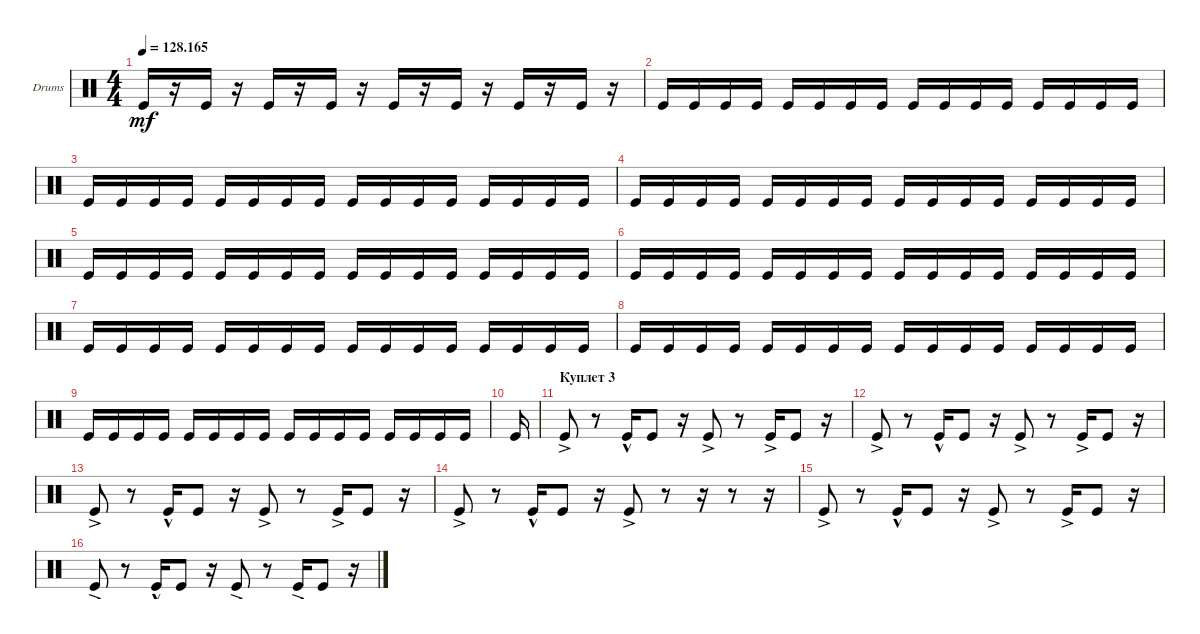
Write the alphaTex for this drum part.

\defaultSystemsLayout 4
\bracketExtendMode groupsimilarinstruments
\firstSystemTrackNameOrientation horizontal
\otherSystemsTrackNameOrientation horizontal
\track ("Drumkit" "Drums") {instrument percussion}
\staff {score}
\articulation defaults
\ts (4 4)
\tempo
128.165
\accidentals auto
\clef neutral
\ottava regular
\simile none
\ks c "Kick (hit)".16{dy mf}
r.16 "Kick (hit)".16 r.16 "Kick (hit)".16 r.16 "Kick (hit)".16 r.16 "Kick (hit)".16 r.16 "Kick (hit)".16 r.16 "Kick (hit)".16 r.16 "Kick (hit)".16 r.16 |
"Kick (hit)".16 "Kick (hit)".16 "Kick (hit)".16 "Kick (hit)".16 "Kick (hit)".16 "Kick (hit)".16 "Kick (hit)".16 "Kick (hit)".16 "Kick (hit)".16 "Kick (hit)".16 "Kick (hit)".16 "Kick (hit)".16 "Kick (hit)".16 "Kick (hit)".16 "Kick (hit)".16 "Kick (hit)".16 |
"Kick (hit)".16 "Kick (hit)".16 "Kick (hit)".16 "Kick (hit)".16 "Kick (hit)".16 "Kick (hit)".16 "Kick (hit)".16 "Kick (hit)".16 "Kick (hit)".16 "Kick (hit)".16 "Kick (hit)".16 "Kick (hit)".16 "Kick (hit)".16 "Kick (hit)".16 "Kick (hit)".16 "Kick (hit)".16 |
"Kick (hit)".16 "Kick (hit)".16 "Kick (hit)".16 "Kick (hit)".16 "Kick (hit)".16 "Kick (hit)".16 "Kick (hit)".16 "Kick (hit)".16 "Kick (hit)".16 "Kick (hit)".16 "Kick (hit)".16 "Kick (hit)".16 "Kick (hit)".16 "Kick (hit)".16 "Kick (hit)".16 "Kick (hit)".16 |
"Kick (hit)".16 "Kick (hit)".16 "Kick (hit)".16 "Kick (hit)".16 "Kick (hit)".16 "Kick (hit)".16 "Kick (hit)".16 "Kick (hit)".16 "Kick (hit)".16 "Kick (hit)".16 "Kick (hit)".16 "Kick (hit)".16 "Kick (hit)".16 "Kick (hit)".16 "Kick (hit)".16 "Kick (hit)".16 |
"Kick (hit)".16 "Kick (hit)".16 "Kick (hit)".16 "Kick (hit)".16 "Kick (hit)".16 "Kick (hit)".16 "Kick (hit)".16 "Kick (hit)".16 "Kick (hit)".16 "Kick (hit)".16 "Kick (hit)".16 "Kick (hit)".16 "Kick (hit)".16 "Kick (hit)".16 "Kick (hit)".16 "Kick (hit)".16 |
"Kick (hit)".16 "Kick (hit)".16 "Kick (hit)".16 "Kick (hit)".16 "Kick (hit)".16 "Kick (hit)".16 "Kick (hit)".16 "Kick (hit)".16 "Kick (hit)".16 "Kick (hit)".16 "Kick (hit)".16 "Kick (hit)".16 "Kick (hit)".16 "Kick (hit)".16 "Kick (hit)".16 "Kick (hit)".16 |
"Kick (hit)".16 "Kick (hit)".16 "Kick (hit)".16 "Kick (hit)".16 "Kick (hit)".16 "Kick (hit)".16 "Kick (hit)".16 "Kick (hit)".16 "Kick (hit)".16 "Kick (hit)".16 "Kick (hit)".16 "Kick (hit)".16 "Kick (hit)".16 "Kick (hit)".16 "Kick (hit)".16 "Kick (hit)".16 |
"Kick (hit)".16 "Kick (hit)".16 "Kick (hit)".16 "Kick (hit)".16 "Kick (hit)".16 "Kick (hit)".16 "Kick (hit)".16 "Kick (hit)".16 "Kick (hit)".16 "Kick (hit)".16 "Kick (hit)".16 "Kick (hit)".16 "Kick (hit)".16 "Kick (hit)".16 "Kick (hit)".16 "Kick (hit)".16 |
"Kick (hit)".16 |
\section ("" "Куплет 3")
"Kick (hit)"{ac}.8 r.8 "Kick (hit)"{hac}.16 "Kick (hit)".8 r.16 "Kick (hit)"{ac}.8 r.8 "Kick (hit)"{ac}.16 "Kick (hit)".8 r.16 |
"Kick (hit)"{ac}.8 r.8 "Kick (hit)"{hac}.16 "Kick (hit)".8 r.16 "Kick (hit)"{ac}.8 r.8 "Kick (hit)"{ac}.16 "Kick (hit)".8 r.16 |
"Kick (hit)"{ac}.8 r.8 "Kick (hit)"{hac}.16 "Kick (hit)".8 r.16 "Kick (hit)"{ac}.8 r.8 "Kick (hit)"{ac}.16 "Kick (hit)".8 r.16 |
"Kick (hit)"{ac}.8 r.8 "Kick (hit)"{hac}.16 "Kick (hit)".8 r.16 "Kick (hit)"{ac}.8 r.8 r.16 r.8 r.16 |
"Kick (hit)"{ac}.8 r.8 "Kick (hit)"{hac}.16 "Kick (hit)".8 r.16 "Kick (hit)"{ac}.8 r.8 "Kick (hit)"{ac}.16 "Kick (hit)".8 r.16 |
"Kick (hit)"{ac}.8 r.8 "Kick (hit)"{hac}.16 "Kick (hit)".8 r.16 "Kick (hit)"{ac}.8 r.8 "Kick (hit)"{ac}.16 "Kick (hit)".8 r.16
